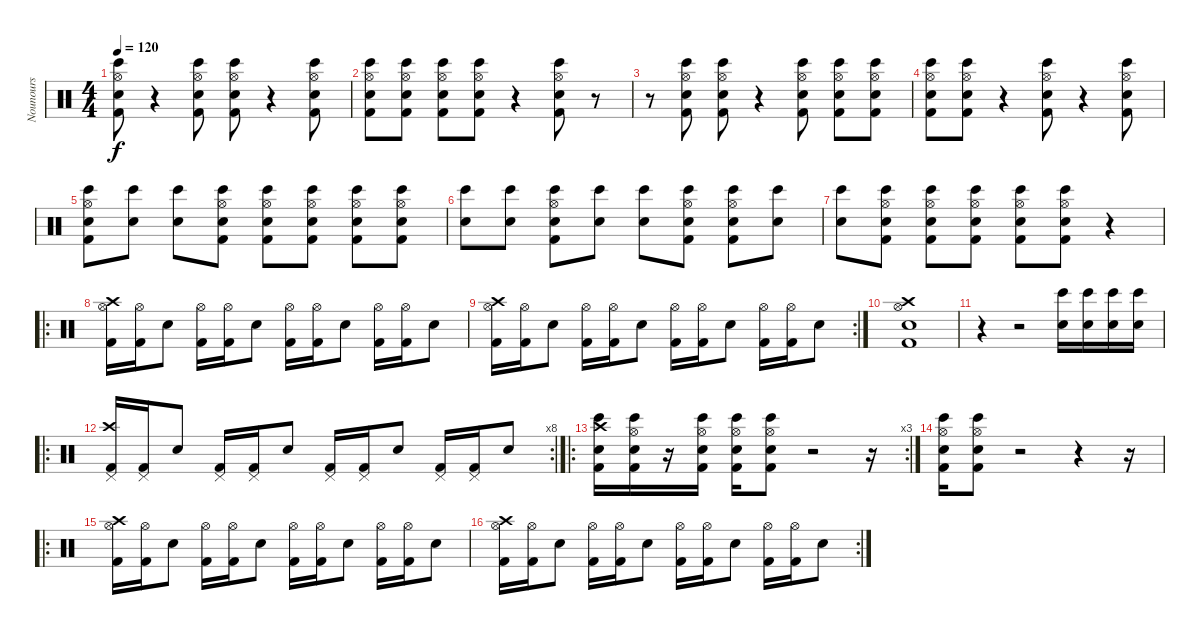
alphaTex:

\track ("Nounours" "Nounours") {instrument percussion}
\staff {score}
\articulation defaults
\ts (4 4)
\tempo 120
\clef neutral
\ks c
("Hi-Hat (open)" "Kick (hit) 2" "Bongo High (hit)" "Electric Snare (hit)").8{dy f} r.4 ("Hi-Hat (open)" "Kick (hit) 2" "Bongo High (hit)" "Electric Snare (hit)").8 ("Hi-Hat (open)" "Kick (hit) 2" "Bongo High (hit)" "Electric Snare (hit)").8 r.4 ("Hi-Hat (open)" "Kick (hit) 2" "Bongo High (hit)" "Electric Snare (hit)").8 |
("Hi-Hat (open)" "Kick (hit) 2" "Bongo High (hit)" "Electric Snare (hit)").8 ("Hi-Hat (open)" "Kick (hit) 2" "Bongo High (hit)" "Electric Snare (hit)").8 ("Hi-Hat (open)" "Kick (hit) 2" "Bongo High (hit)" "Electric Snare (hit)").8 ("Hi-Hat (open)" "Kick (hit) 2" "Bongo High (hit)" "Electric Snare (hit)").8 r.4 ("Hi-Hat (open)" "Kick (hit) 2" "Bongo High (hit)" "Electric Snare (hit)").8 r.8 |
r.8 ("Hi-Hat (open)" "Kick (hit) 2" "Bongo High (hit)" "Electric Snare (hit)").8 ("Hi-Hat (open)" "Kick (hit) 2" "Bongo High (hit)" "Electric Snare (hit)").8 r.4 ("Hi-Hat (open)" "Kick (hit) 2" "Bongo High (hit)" "Electric Snare (hit)").8 ("Hi-Hat (open)" "Kick (hit) 2" "Bongo High (hit)" "Electric Snare (hit)").8 ("Hi-Hat (open)" "Kick (hit) 2" "Bongo High (hit)" "Electric Snare (hit)").8 |
("Hi-Hat (open)" "Kick (hit) 2" "Bongo High (hit)" "Electric Snare (hit)").8 ("Hi-Hat (open)" "Kick (hit) 2" "Bongo High (hit)" "Electric Snare (hit)").8 r.4 ("Hi-Hat (open)" "Kick (hit) 2" "Bongo High (hit)" "Electric Snare (hit)").8 r.4 ("Hi-Hat (open)" "Kick (hit) 2" "Bongo High (hit)" "Electric Snare (hit)").8 |
("Hi-Hat (open)" "Kick (hit) 2" "Bongo High (hit)" "Electric Snare (hit)").8 ("Bongo High (hit)" "Electric Snare (hit)").8 ("Bongo High (hit)" "Electric Snare (hit)").8 ("Hi-Hat (open)" "Kick (hit) 2" "Bongo High (hit)" "Electric Snare (hit)").8 ("Hi-Hat (open)" "Kick (hit) 2" "Bongo High (hit)" "Electric Snare (hit)").8 ("Hi-Hat (open)" "Kick (hit) 2" "Bongo High (hit)" "Electric Snare (hit)").8 ("Hi-Hat (open)" "Kick (hit) 2" "Bongo High (hit)" "Electric Snare (hit)").8 ("Hi-Hat (open)" "Kick (hit) 2" "Bongo High (hit)" "Electric Snare (hit)").8 |
("Bongo High (hit)" "Electric Snare (hit)").8 ("Bongo High (hit)" "Electric Snare (hit)").8 ("Hi-Hat (open)" "Kick (hit) 2" "Bongo High (hit)" "Electric Snare (hit)").8 ("Bongo High (hit)" "Electric Snare (hit)").8 ("Bongo High (hit)" "Electric Snare (hit)").8 ("Hi-Hat (open)" "Kick (hit) 2" "Bongo High (hit)" "Electric Snare (hit)").8 ("Hi-Hat (open)" "Kick (hit) 2" "Bongo High (hit)" "Electric Snare (hit)").8 ("Bongo High (hit)" "Electric Snare (hit)").8 |
("Bongo High (hit)" "Electric Snare (hit)").8 ("Hi-Hat (open)" "Kick (hit) 2" "Bongo High (hit)" "Electric Snare (hit)").8 ("Hi-Hat (open)" "Kick (hit) 2" "Bongo High (hit)" "Electric Snare (hit)").8 ("Hi-Hat (open)" "Kick (hit) 2" "Bongo High (hit)" "Electric Snare (hit)").8 ("Hi-Hat (open)" "Kick (hit) 2" "Bongo High (hit)" "Electric Snare (hit)").8 ("Hi-Hat (open)" "Kick (hit) 2" "Bongo High (hit)" "Electric Snare (hit)").8 r.4 |
\ro
("Crash high (hit)" "Hi-Hat (open)" "Kick (hit) 2").16 ("Hi-Hat (open)" "Kick (hit) 2").16 "Electric Snare (hit)".8 ("Hi-Hat (open)" "Kick (hit) 2").16 ("Hi-Hat (open)" "Kick (hit) 2").16 "Electric Snare (hit)".8 ("Hi-Hat (open)" "Kick (hit) 2").16 ("Hi-Hat (open)" "Kick (hit) 2").16 "Electric Snare (hit)".8 ("Hi-Hat (open)" "Kick (hit) 2").16 ("Hi-Hat (open)" "Kick (hit) 2").16 "Electric Snare (hit)".8 |
\rc 2
("Crash high (hit)" "Hi-Hat (open)" "Kick (hit) 2").16 ("Hi-Hat (open)" "Kick (hit) 2").16 "Electric Snare (hit)".8 ("Hi-Hat (open)" "Kick (hit) 2").16 ("Hi-Hat (open)" "Kick (hit) 2").16 "Electric Snare (hit)".8 ("Hi-Hat (open)" "Kick (hit) 2").16 ("Hi-Hat (open)" "Kick (hit) 2").16 "Electric Snare (hit)".8 ("Hi-Hat (open)" "Kick (hit) 2").16 ("Hi-Hat (open)" "Kick (hit) 2").16 "Electric Snare (hit)".8 |
("Crash high (hit)" "Hi-Hat (open)" "Electric Snare (hit)" "Kick (hit) 2").1 |
r.4 r.2 ("Bongo High (hit)" "Electric Snare (hit)").16 ("Bongo High (hit)" "Electric Snare (hit)").16 ("Bongo High (hit)" "Electric Snare (hit)").16 ("Bongo High (hit)" "Electric Snare (hit)").16 |
\ro
\rc 8
("Crash high (hit)" "Pedal Hi-Hat (hit)" "Kick (hit) 2").16 ("Pedal Hi-Hat (hit)" "Kick (hit) 2").16 "Electric Snare (hit)".8 ("Pedal Hi-Hat (hit)" "Kick (hit) 2").16 ("Pedal Hi-Hat (hit)" "Kick (hit) 2").16 "Electric Snare (hit)".8 ("Pedal Hi-Hat (hit)" "Kick (hit) 2").16 ("Pedal Hi-Hat (hit)" "Kick (hit) 2").16 "Electric Snare (hit)".8 ("Pedal Hi-Hat (hit)" "Kick (hit) 2").16 ("Pedal Hi-Hat (hit)" "Kick (hit) 2").16 "Electric Snare (hit)".8 |
\ro
\rc 3
("Crash high (hit)" "Bongo High (hit)" "Electric Snare (hit)" "Kick (hit) 2").16 ("Hi-Hat (open)" "Bongo High (hit)" "Electric Snare (hit)" "Kick (hit) 2").16 r.16 ("Hi-Hat (open)" "Bongo High (hit)" "Electric Snare (hit)" "Kick (hit) 2").16 ("Hi-Hat (open)" "Bongo High (hit)" "Electric Snare (hit)" "Kick (hit) 2").16 ("Hi-Hat (open)" "Bongo High (hit)" "Electric Snare (hit)" "Kick (hit) 2").8 r.2 r.16 |
("Hi-Hat (open)" "Bongo High (hit)" "Electric Snare (hit)" "Kick (hit) 2").16 ("Hi-Hat (open)" "Bongo High (hit)" "Electric Snare (hit)" "Kick (hit) 2").8 r.2 r.4 r.16 |
\ro
("Crash high (hit)" "Hi-Hat (open)" "Kick (hit) 2").16 ("Hi-Hat (open)" "Kick (hit) 2").16 "Electric Snare (hit)".8 ("Hi-Hat (open)" "Kick (hit) 2").16 ("Hi-Hat (open)" "Kick (hit) 2").16 "Electric Snare (hit)".8 ("Hi-Hat (open)" "Kick (hit) 2").16 ("Hi-Hat (open)" "Kick (hit) 2").16 "Electric Snare (hit)".8 ("Hi-Hat (open)" "Kick (hit) 2").16 ("Hi-Hat (open)" "Kick (hit) 2").16 "Electric Snare (hit)".8 |
\rc 2
("Crash high (hit)" "Hi-Hat (open)" "Kick (hit) 2").16 ("Hi-Hat (open)" "Kick (hit) 2").16 "Electric Snare (hit)".8 ("Hi-Hat (open)" "Kick (hit) 2").16 ("Hi-Hat (open)" "Kick (hit) 2").16 "Electric Snare (hit)".8 ("Hi-Hat (open)" "Kick (hit) 2").16 ("Hi-Hat (open)" "Kick (hit) 2").16 "Electric Snare (hit)".8 ("Hi-Hat (open)" "Kick (hit) 2").16 ("Hi-Hat (open)" "Kick (hit) 2").16 "Electric Snare (hit)".8
